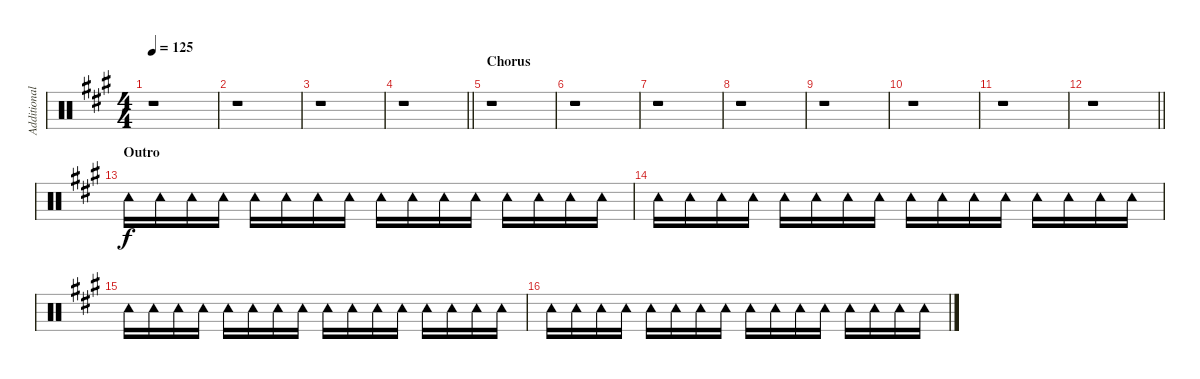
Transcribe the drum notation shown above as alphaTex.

\track ("Additional Percussion II" "Additional") {instrument percussion}
\staff {score}
\articulation defaults
\ts (4 4)
\tempo 125
\clef neutral
\ks a
r.1{dy f} |
r.1 |
r.1 |
\barLineRight lightlight
r.1 |
\section ("" "Chorus")
r.1 |
r.1 |
r.1 |
r.1 |
r.1 |
r.1 |
r.1 |
\barLineRight lightlight
r.1 |
\section ("" "Outro")
"Tambourine (hit)".16 "Tambourine (hit)".16 "Tambourine (hit)".16 "Tambourine (hit)".16 "Tambourine (hit)".16 "Tambourine (hit)".16 "Tambourine (hit)".16 "Tambourine (hit)".16 "Tambourine (hit)".16 "Tambourine (hit)".16 "Tambourine (hit)".16 "Tambourine (hit)".16 "Tambourine (hit)".16 "Tambourine (hit)".16 "Tambourine (hit)".16 "Tambourine (hit)".16 |
"Tambourine (hit)".16 "Tambourine (hit)".16 "Tambourine (hit)".16 "Tambourine (hit)".16 "Tambourine (hit)".16 "Tambourine (hit)".16 "Tambourine (hit)".16 "Tambourine (hit)".16 "Tambourine (hit)".16 "Tambourine (hit)".16 "Tambourine (hit)".16 "Tambourine (hit)".16 "Tambourine (hit)".16 "Tambourine (hit)".16 "Tambourine (hit)".16 "Tambourine (hit)".16 |
"Tambourine (hit)".16 "Tambourine (hit)".16 "Tambourine (hit)".16 "Tambourine (hit)".16 "Tambourine (hit)".16 "Tambourine (hit)".16 "Tambourine (hit)".16 "Tambourine (hit)".16 "Tambourine (hit)".16 "Tambourine (hit)".16 "Tambourine (hit)".16 "Tambourine (hit)".16 "Tambourine (hit)".16 "Tambourine (hit)".16 "Tambourine (hit)".16 "Tambourine (hit)".16 |
"Tambourine (hit)".16 "Tambourine (hit)".16 "Tambourine (hit)".16 "Tambourine (hit)".16 "Tambourine (hit)".16 "Tambourine (hit)".16 "Tambourine (hit)".16 "Tambourine (hit)".16 "Tambourine (hit)".16 "Tambourine (hit)".16 "Tambourine (hit)".16 "Tambourine (hit)".16 "Tambourine (hit)".16 "Tambourine (hit)".16 "Tambourine (hit)".16 "Tambourine (hit)".16
